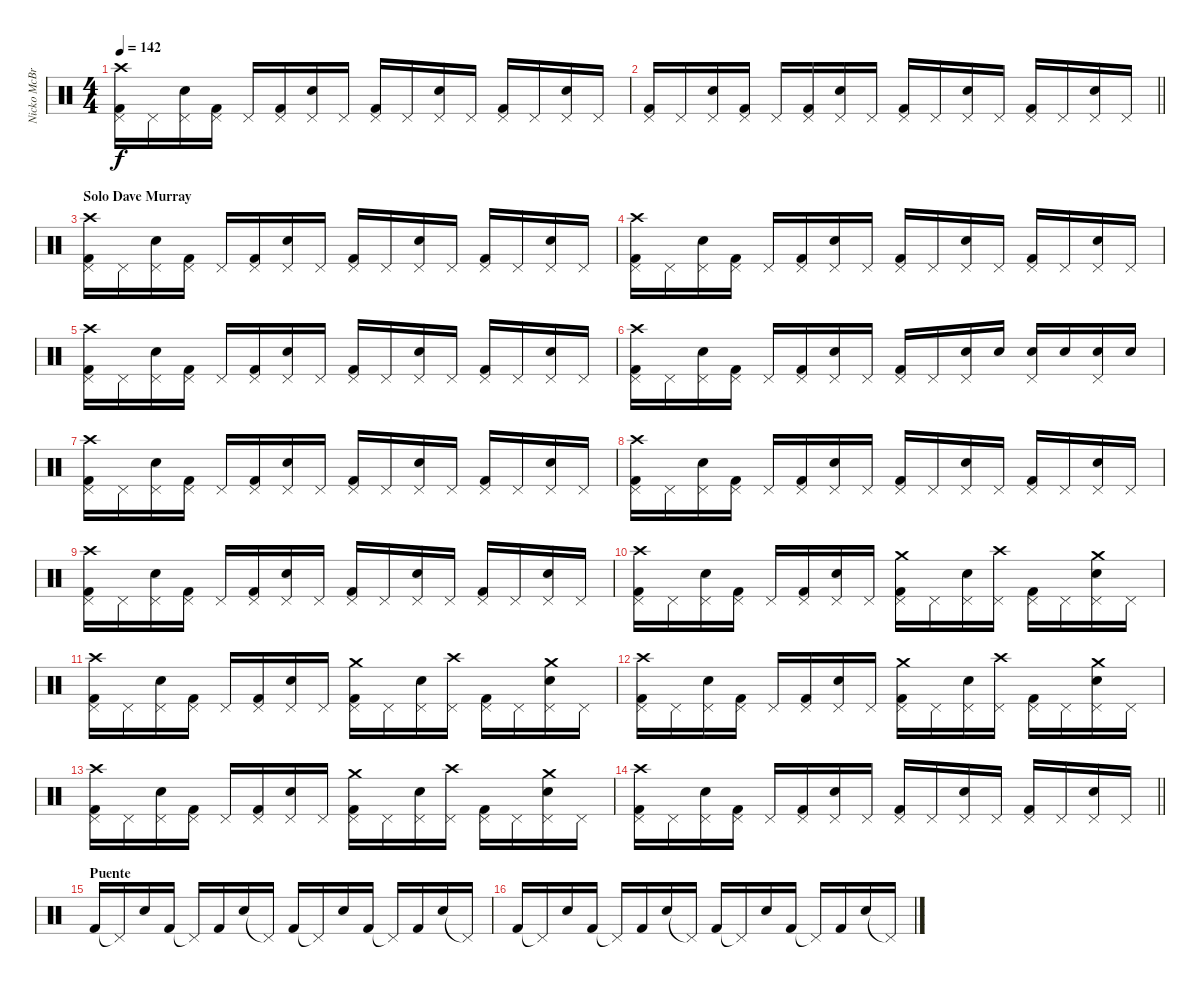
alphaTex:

\track ("Nicko McBrain" "Nicko McBr") {instrument percussion}
\staff {score}
\articulation defaults
\ts (4 4)
\tempo 142
\clef neutral
\ks c
("Kick (hit) 2" "Pedal Hi-Hat (hit)" "Crash high (hit)").16{dy f} "Pedal Hi-Hat (hit)".16 ("Snare (hit) 2" "Pedal Hi-Hat (hit)").16 ("Kick (hit) 2" "Pedal Hi-Hat (hit)").16 "Pedal Hi-Hat (hit)".16 ("Kick (hit) 2" "Pedal Hi-Hat (hit)").16 ("Snare (hit) 2" "Pedal Hi-Hat (hit)").16 "Pedal Hi-Hat (hit)".16 ("Kick (hit) 2" "Pedal Hi-Hat (hit)").16 "Pedal Hi-Hat (hit)".16 ("Snare (hit) 2" "Pedal Hi-Hat (hit)").16 "Pedal Hi-Hat (hit)".16 ("Kick (hit) 2" "Pedal Hi-Hat (hit)").16 "Pedal Hi-Hat (hit)".16 ("Snare (hit) 2" "Pedal Hi-Hat (hit)").16 "Pedal Hi-Hat (hit)".16 |
\barLineRight lightlight
("Kick (hit) 2" "Pedal Hi-Hat (hit)").16 "Pedal Hi-Hat (hit)".16 ("Snare (hit) 2" "Pedal Hi-Hat (hit)").16 ("Kick (hit) 2" "Pedal Hi-Hat (hit)").16 "Pedal Hi-Hat (hit)".16 ("Kick (hit) 2" "Pedal Hi-Hat (hit)").16 ("Snare (hit) 2" "Pedal Hi-Hat (hit)").16 "Pedal Hi-Hat (hit)".16 ("Kick (hit) 2" "Pedal Hi-Hat (hit)").16 "Pedal Hi-Hat (hit)".16 ("Snare (hit) 2" "Pedal Hi-Hat (hit)").16 "Pedal Hi-Hat (hit)".16 ("Kick (hit) 2" "Pedal Hi-Hat (hit)").16 "Pedal Hi-Hat (hit)".16 ("Snare (hit) 2" "Pedal Hi-Hat (hit)").16 "Pedal Hi-Hat (hit)".16 |
\section ("" "Solo Dave Murray")
("Kick (hit) 2" "Pedal Hi-Hat (hit)" "Crash high (hit)").16 "Pedal Hi-Hat (hit)".16 ("Snare (hit) 2" "Pedal Hi-Hat (hit)").16 ("Kick (hit) 2" "Pedal Hi-Hat (hit)").16 "Pedal Hi-Hat (hit)".16 ("Kick (hit) 2" "Pedal Hi-Hat (hit)").16 ("Snare (hit) 2" "Pedal Hi-Hat (hit)").16 "Pedal Hi-Hat (hit)".16 ("Kick (hit) 2" "Pedal Hi-Hat (hit)").16 "Pedal Hi-Hat (hit)".16 ("Snare (hit) 2" "Pedal Hi-Hat (hit)").16 "Pedal Hi-Hat (hit)".16 ("Kick (hit) 2" "Pedal Hi-Hat (hit)").16 "Pedal Hi-Hat (hit)".16 ("Snare (hit) 2" "Pedal Hi-Hat (hit)").16 "Pedal Hi-Hat (hit)".16 |
("Kick (hit) 2" "Pedal Hi-Hat (hit)" "Crash high (hit)").16 "Pedal Hi-Hat (hit)".16 ("Snare (hit) 2" "Pedal Hi-Hat (hit)").16 ("Kick (hit) 2" "Pedal Hi-Hat (hit)").16 "Pedal Hi-Hat (hit)".16 ("Kick (hit) 2" "Pedal Hi-Hat (hit)").16 ("Snare (hit) 2" "Pedal Hi-Hat (hit)").16 "Pedal Hi-Hat (hit)".16 ("Kick (hit) 2" "Pedal Hi-Hat (hit)").16 "Pedal Hi-Hat (hit)".16 ("Snare (hit) 2" "Pedal Hi-Hat (hit)").16 "Pedal Hi-Hat (hit)".16 ("Kick (hit) 2" "Pedal Hi-Hat (hit)").16 "Pedal Hi-Hat (hit)".16 ("Snare (hit) 2" "Pedal Hi-Hat (hit)").16 "Pedal Hi-Hat (hit)".16 |
("Kick (hit) 2" "Pedal Hi-Hat (hit)" "Crash high (hit)").16 "Pedal Hi-Hat (hit)".16 ("Snare (hit) 2" "Pedal Hi-Hat (hit)").16 ("Kick (hit) 2" "Pedal Hi-Hat (hit)").16 "Pedal Hi-Hat (hit)".16 ("Kick (hit) 2" "Pedal Hi-Hat (hit)").16 ("Snare (hit) 2" "Pedal Hi-Hat (hit)").16 "Pedal Hi-Hat (hit)".16 ("Kick (hit) 2" "Pedal Hi-Hat (hit)").16 "Pedal Hi-Hat (hit)".16 ("Snare (hit) 2" "Pedal Hi-Hat (hit)").16 "Pedal Hi-Hat (hit)".16 ("Kick (hit) 2" "Pedal Hi-Hat (hit)").16 "Pedal Hi-Hat (hit)".16 ("Snare (hit) 2" "Pedal Hi-Hat (hit)").16 "Pedal Hi-Hat (hit)".16 |
("Kick (hit) 2" "Pedal Hi-Hat (hit)" "Crash high (hit)").16 "Pedal Hi-Hat (hit)".16 ("Snare (hit) 2" "Pedal Hi-Hat (hit)").16 ("Kick (hit) 2" "Pedal Hi-Hat (hit)").16 "Pedal Hi-Hat (hit)".16 ("Kick (hit) 2" "Pedal Hi-Hat (hit)").16 ("Snare (hit) 2" "Pedal Hi-Hat (hit)").16 "Pedal Hi-Hat (hit)".16 ("Kick (hit) 2" "Pedal Hi-Hat (hit)").16 "Pedal Hi-Hat (hit)".16 ("Snare (hit) 2" "Pedal Hi-Hat (hit)").16 "Snare (hit) 2".16 ("Snare (hit) 2" "Pedal Hi-Hat (hit)").16 "Snare (hit) 2".16 ("Snare (hit) 2" "Pedal Hi-Hat (hit)").16 "Snare (hit) 2".16 |
("Kick (hit) 2" "Pedal Hi-Hat (hit)" "Crash high (hit)").16 "Pedal Hi-Hat (hit)".16 ("Snare (hit) 2" "Pedal Hi-Hat (hit)").16 ("Kick (hit) 2" "Pedal Hi-Hat (hit)").16 "Pedal Hi-Hat (hit)".16 ("Kick (hit) 2" "Pedal Hi-Hat (hit)").16 ("Snare (hit) 2" "Pedal Hi-Hat (hit)").16 "Pedal Hi-Hat (hit)".16 ("Kick (hit) 2" "Pedal Hi-Hat (hit)").16 "Pedal Hi-Hat (hit)".16 ("Snare (hit) 2" "Pedal Hi-Hat (hit)").16 "Pedal Hi-Hat (hit)".16 ("Kick (hit) 2" "Pedal Hi-Hat (hit)").16 "Pedal Hi-Hat (hit)".16 ("Snare (hit) 2" "Pedal Hi-Hat (hit)").16 "Pedal Hi-Hat (hit)".16 |
("Kick (hit) 2" "Pedal Hi-Hat (hit)" "Crash high (hit)").16 "Pedal Hi-Hat (hit)".16 ("Snare (hit) 2" "Pedal Hi-Hat (hit)").16 ("Kick (hit) 2" "Pedal Hi-Hat (hit)").16 "Pedal Hi-Hat (hit)".16 ("Kick (hit) 2" "Pedal Hi-Hat (hit)").16 ("Snare (hit) 2" "Pedal Hi-Hat (hit)").16 "Pedal Hi-Hat (hit)".16 ("Kick (hit) 2" "Pedal Hi-Hat (hit)").16 "Pedal Hi-Hat (hit)".16 ("Snare (hit) 2" "Pedal Hi-Hat (hit)").16 "Pedal Hi-Hat (hit)".16 ("Kick (hit) 2" "Pedal Hi-Hat (hit)").16 "Pedal Hi-Hat (hit)".16 ("Snare (hit) 2" "Pedal Hi-Hat (hit)").16 "Pedal Hi-Hat (hit)".16 |
("Kick (hit) 2" "Pedal Hi-Hat (hit)" "Crash high (hit)").16 "Pedal Hi-Hat (hit)".16 ("Snare (hit) 2" "Pedal Hi-Hat (hit)").16 ("Kick (hit) 2" "Pedal Hi-Hat (hit)").16 "Pedal Hi-Hat (hit)".16 ("Kick (hit) 2" "Pedal Hi-Hat (hit)").16 ("Snare (hit) 2" "Pedal Hi-Hat (hit)").16 "Pedal Hi-Hat (hit)".16 ("Kick (hit) 2" "Pedal Hi-Hat (hit)").16 "Pedal Hi-Hat (hit)".16 ("Snare (hit) 2" "Pedal Hi-Hat (hit)").16 "Pedal Hi-Hat (hit)".16 ("Kick (hit) 2" "Pedal Hi-Hat (hit)").16 "Pedal Hi-Hat (hit)".16 ("Snare (hit) 2" "Pedal Hi-Hat (hit)").16 "Pedal Hi-Hat (hit)".16 |
("Kick (hit) 2" "Pedal Hi-Hat (hit)" "Crash high (hit)").16 "Pedal Hi-Hat (hit)".16 ("Snare (hit) 2" "Pedal Hi-Hat (hit)").16 ("Kick (hit) 2" "Pedal Hi-Hat (hit)").16 "Pedal Hi-Hat (hit)".16 ("Kick (hit) 2" "Pedal Hi-Hat (hit)").16 ("Snare (hit) 2" "Pedal Hi-Hat (hit)").16 "Pedal Hi-Hat (hit)".16 ("Kick (hit) 2" "Pedal Hi-Hat (hit)" "Crash medium (hit)").16 "Pedal Hi-Hat (hit)".16 ("Snare (hit) 2" "Pedal Hi-Hat (hit)").16 ("Pedal Hi-Hat (hit)" "Crash high (hit)").16 ("Kick (hit) 2" "Pedal Hi-Hat (hit)").16 "Pedal Hi-Hat (hit)".16 ("Snare (hit) 2" "Pedal Hi-Hat (hit)" "Crash medium (hit)").16 "Pedal Hi-Hat (hit)".16 |
("Kick (hit) 2" "Pedal Hi-Hat (hit)" "Crash high (hit)").16 "Pedal Hi-Hat (hit)".16 ("Snare (hit) 2" "Pedal Hi-Hat (hit)").16 ("Kick (hit) 2" "Pedal Hi-Hat (hit)").16 "Pedal Hi-Hat (hit)".16 ("Kick (hit) 2" "Pedal Hi-Hat (hit)").16 ("Snare (hit) 2" "Pedal Hi-Hat (hit)").16 "Pedal Hi-Hat (hit)".16 ("Kick (hit) 2" "Pedal Hi-Hat (hit)" "Crash medium (hit)").16 "Pedal Hi-Hat (hit)".16 ("Snare (hit) 2" "Pedal Hi-Hat (hit)").16 ("Pedal Hi-Hat (hit)" "Crash high (hit)").16 ("Kick (hit) 2" "Pedal Hi-Hat (hit)").16 "Pedal Hi-Hat (hit)".16 ("Snare (hit) 2" "Pedal Hi-Hat (hit)" "Crash medium (hit)").16 "Pedal Hi-Hat (hit)".16 |
("Kick (hit) 2" "Pedal Hi-Hat (hit)" "Crash high (hit)").16 "Pedal Hi-Hat (hit)".16 ("Snare (hit) 2" "Pedal Hi-Hat (hit)").16 ("Kick (hit) 2" "Pedal Hi-Hat (hit)").16 "Pedal Hi-Hat (hit)".16 ("Kick (hit) 2" "Pedal Hi-Hat (hit)").16 ("Snare (hit) 2" "Pedal Hi-Hat (hit)").16 "Pedal Hi-Hat (hit)".16 ("Kick (hit) 2" "Pedal Hi-Hat (hit)" "Crash medium (hit)").16 "Pedal Hi-Hat (hit)".16 ("Snare (hit) 2" "Pedal Hi-Hat (hit)").16 ("Pedal Hi-Hat (hit)" "Crash high (hit)").16 ("Kick (hit) 2" "Pedal Hi-Hat (hit)").16 "Pedal Hi-Hat (hit)".16 ("Snare (hit) 2" "Pedal Hi-Hat (hit)" "Crash medium (hit)").16 "Pedal Hi-Hat (hit)".16 |
("Kick (hit) 2" "Pedal Hi-Hat (hit)" "Crash high (hit)").16 "Pedal Hi-Hat (hit)".16 ("Snare (hit) 2" "Pedal Hi-Hat (hit)").16 ("Kick (hit) 2" "Pedal Hi-Hat (hit)").16 "Pedal Hi-Hat (hit)".16 ("Kick (hit) 2" "Pedal Hi-Hat (hit)").16 ("Snare (hit) 2" "Pedal Hi-Hat (hit)").16 "Pedal Hi-Hat (hit)".16 ("Kick (hit) 2" "Pedal Hi-Hat (hit)" "Crash medium (hit)").16 "Pedal Hi-Hat (hit)".16 ("Snare (hit) 2" "Pedal Hi-Hat (hit)").16 ("Pedal Hi-Hat (hit)" "Crash high (hit)").16 ("Kick (hit) 2" "Pedal Hi-Hat (hit)").16 "Pedal Hi-Hat (hit)".16 ("Snare (hit) 2" "Pedal Hi-Hat (hit)" "Crash medium (hit)").16 "Pedal Hi-Hat (hit)".16 |
\barLineRight lightlight
("Kick (hit) 2" "Pedal Hi-Hat (hit)" "Crash high (hit)").16 "Pedal Hi-Hat (hit)".16 ("Snare (hit) 2" "Pedal Hi-Hat (hit)").16 ("Kick (hit) 2" "Pedal Hi-Hat (hit)").16 "Pedal Hi-Hat (hit)".16 ("Kick (hit) 2" "Pedal Hi-Hat (hit)").16 ("Snare (hit) 2" "Pedal Hi-Hat (hit)").16 "Pedal Hi-Hat (hit)".16 ("Kick (hit) 2" "Pedal Hi-Hat (hit)").16 "Pedal Hi-Hat (hit)".16 ("Snare (hit) 2" "Pedal Hi-Hat (hit)").16 "Pedal Hi-Hat (hit)".16 ("Kick (hit) 2" "Pedal Hi-Hat (hit)").16 "Pedal Hi-Hat (hit)".16 ("Snare (hit) 2" "Pedal Hi-Hat (hit)").16 "Pedal Hi-Hat (hit)".16 |
\section ("" "Puente")
"Kick (hit) 2".16 "Pedal Hi-Hat (hit)"{t}.16 "Snare (hit) 2".16 "Kick (hit) 2".16 "Pedal Hi-Hat (hit)"{t}.16 "Kick (hit) 2".16 "Snare (hit) 2".16 "Pedal Hi-Hat (hit)"{t}.16 "Kick (hit) 2".16 "Pedal Hi-Hat (hit)"{t}.16 "Snare (hit) 2".16 "Kick (hit) 2".16 "Pedal Hi-Hat (hit)"{t}.16 "Kick (hit) 2".16 "Snare (hit) 2".16 "Pedal Hi-Hat (hit)"{t}.16 |
"Kick (hit) 2".16 "Pedal Hi-Hat (hit)"{t}.16 "Snare (hit) 2".16 "Kick (hit) 2".16 "Pedal Hi-Hat (hit)"{t}.16 "Kick (hit) 2".16 "Snare (hit) 2".16 "Pedal Hi-Hat (hit)"{t}.16 "Kick (hit) 2".16 "Pedal Hi-Hat (hit)"{t}.16 "Snare (hit) 2".16 "Kick (hit) 2".16 "Pedal Hi-Hat (hit)"{t}.16 "Kick (hit) 2".16 "Snare (hit) 2".16 "Pedal Hi-Hat (hit)"{t}.16
